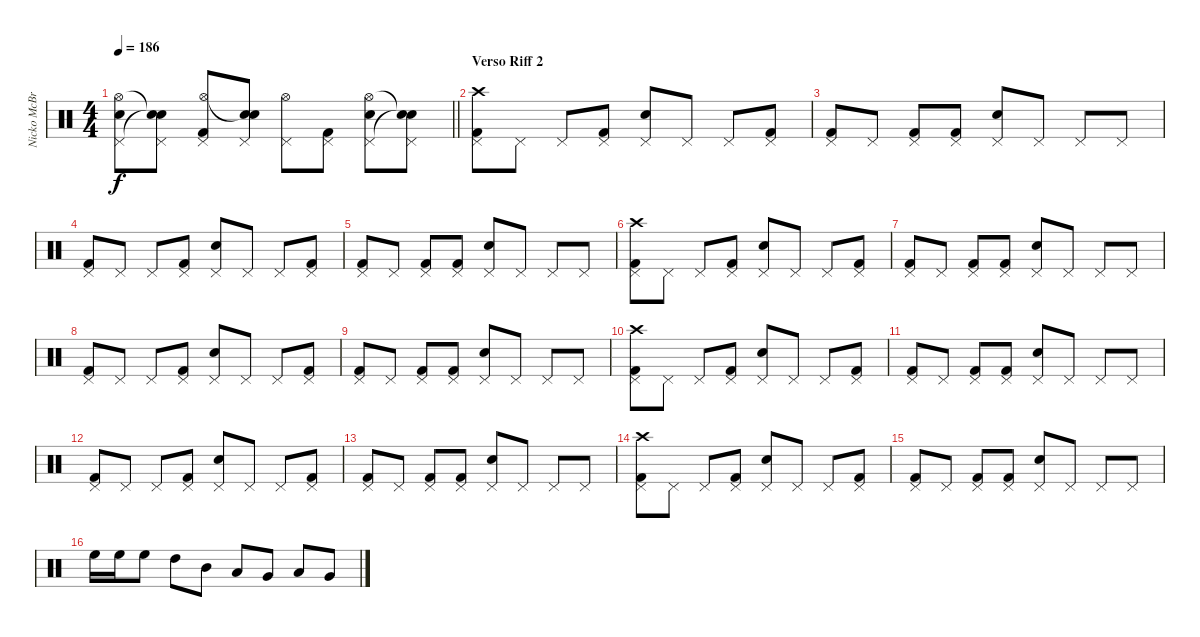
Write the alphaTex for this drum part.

\track ("Nicko McBrain" "Nicko McBr") {instrument percussion}
\staff {score}
\articulation defaults
\ts (4 4)
\tempo 186
\clef neutral
\barLineRight lightlight
\ks c
("Snare (hit) 2" "Pedal Hi-Hat (hit)" "Hi-Hat (open)").8{dy f} ("Pedal Hi-Hat (hit)" "Snare (hit)"{t} "Snare (hit)"{t}).8 ("Kick (hit) 2" "Pedal Hi-Hat (hit)" "Hi-Hat (open)").8 ("Snare (hit) 2" "Pedal Hi-Hat (hit)" "Snare (hit)"{t}).8 ("Pedal Hi-Hat (hit)" "Hi-Hat (open)").8 ("Kick (hit) 2" "Pedal Hi-Hat (hit)").8 ("Snare (hit) 2" "Pedal Hi-Hat (hit)" "Hi-Hat (open)").8 ("Pedal Hi-Hat (hit)" "Snare (hit)"{t} "Snare (hit)"{t}).8 |
\section ("" "Verso Riff 2")
("Kick (hit) 2" "Pedal Hi-Hat (hit)" "Crash high (hit)").8 "Pedal Hi-Hat (hit)".8 "Pedal Hi-Hat (hit)".8 ("Kick (hit) 2" "Pedal Hi-Hat (hit)").8 ("Snare (hit) 2" "Pedal Hi-Hat (hit)").8 "Pedal Hi-Hat (hit)".8 "Pedal Hi-Hat (hit)".8 ("Kick (hit) 2" "Pedal Hi-Hat (hit)").8 |
("Kick (hit) 2" "Pedal Hi-Hat (hit)").8 "Pedal Hi-Hat (hit)".8 ("Kick (hit) 2" "Pedal Hi-Hat (hit)").8 ("Kick (hit) 2" "Pedal Hi-Hat (hit)").8 ("Snare (hit) 2" "Pedal Hi-Hat (hit)").8 "Pedal Hi-Hat (hit)".8 "Pedal Hi-Hat (hit)".8 "Pedal Hi-Hat (hit)".8 |
("Kick (hit) 2" "Pedal Hi-Hat (hit)").8 "Pedal Hi-Hat (hit)".8 "Pedal Hi-Hat (hit)".8 ("Kick (hit) 2" "Pedal Hi-Hat (hit)").8 ("Snare (hit) 2" "Pedal Hi-Hat (hit)").8 "Pedal Hi-Hat (hit)".8 "Pedal Hi-Hat (hit)".8 ("Kick (hit) 2" "Pedal Hi-Hat (hit)").8 |
("Kick (hit) 2" "Pedal Hi-Hat (hit)").8 "Pedal Hi-Hat (hit)".8 ("Kick (hit) 2" "Pedal Hi-Hat (hit)").8 ("Kick (hit) 2" "Pedal Hi-Hat (hit)").8 ("Snare (hit) 2" "Pedal Hi-Hat (hit)").8 "Pedal Hi-Hat (hit)".8 "Pedal Hi-Hat (hit)".8 "Pedal Hi-Hat (hit)".8 |
("Kick (hit) 2" "Pedal Hi-Hat (hit)" "Crash high (hit)").8 "Pedal Hi-Hat (hit)".8 "Pedal Hi-Hat (hit)".8 ("Kick (hit) 2" "Pedal Hi-Hat (hit)").8 ("Snare (hit) 2" "Pedal Hi-Hat (hit)").8 "Pedal Hi-Hat (hit)".8 "Pedal Hi-Hat (hit)".8 ("Kick (hit) 2" "Pedal Hi-Hat (hit)").8 |
("Kick (hit) 2" "Pedal Hi-Hat (hit)").8 "Pedal Hi-Hat (hit)".8 ("Kick (hit) 2" "Pedal Hi-Hat (hit)").8 ("Kick (hit) 2" "Pedal Hi-Hat (hit)").8 ("Snare (hit) 2" "Pedal Hi-Hat (hit)").8 "Pedal Hi-Hat (hit)".8 "Pedal Hi-Hat (hit)".8 "Pedal Hi-Hat (hit)".8 |
("Kick (hit) 2" "Pedal Hi-Hat (hit)").8 "Pedal Hi-Hat (hit)".8 "Pedal Hi-Hat (hit)".8 ("Kick (hit) 2" "Pedal Hi-Hat (hit)").8 ("Snare (hit) 2" "Pedal Hi-Hat (hit)").8 "Pedal Hi-Hat (hit)".8 "Pedal Hi-Hat (hit)".8 ("Kick (hit) 2" "Pedal Hi-Hat (hit)").8 |
("Kick (hit) 2" "Pedal Hi-Hat (hit)").8 "Pedal Hi-Hat (hit)".8 ("Kick (hit) 2" "Pedal Hi-Hat (hit)").8 ("Kick (hit) 2" "Pedal Hi-Hat (hit)").8 ("Snare (hit) 2" "Pedal Hi-Hat (hit)").8 "Pedal Hi-Hat (hit)".8 "Pedal Hi-Hat (hit)".8 "Pedal Hi-Hat (hit)".8 |
("Kick (hit) 2" "Pedal Hi-Hat (hit)" "Crash high (hit)").8 "Pedal Hi-Hat (hit)".8 "Pedal Hi-Hat (hit)".8 ("Kick (hit) 2" "Pedal Hi-Hat (hit)").8 ("Snare (hit) 2" "Pedal Hi-Hat (hit)").8 "Pedal Hi-Hat (hit)".8 "Pedal Hi-Hat (hit)".8 ("Kick (hit) 2" "Pedal Hi-Hat (hit)").8 |
("Kick (hit) 2" "Pedal Hi-Hat (hit)").8 "Pedal Hi-Hat (hit)".8 ("Kick (hit) 2" "Pedal Hi-Hat (hit)").8 ("Kick (hit) 2" "Pedal Hi-Hat (hit)").8 ("Snare (hit) 2" "Pedal Hi-Hat (hit)").8 "Pedal Hi-Hat (hit)".8 "Pedal Hi-Hat (hit)".8 "Pedal Hi-Hat (hit)".8 |
("Kick (hit) 2" "Pedal Hi-Hat (hit)").8 "Pedal Hi-Hat (hit)".8 "Pedal Hi-Hat (hit)".8 ("Kick (hit) 2" "Pedal Hi-Hat (hit)").8 ("Snare (hit) 2" "Pedal Hi-Hat (hit)").8 "Pedal Hi-Hat (hit)".8 "Pedal Hi-Hat (hit)".8 ("Kick (hit) 2" "Pedal Hi-Hat (hit)").8 |
("Kick (hit) 2" "Pedal Hi-Hat (hit)").8 "Pedal Hi-Hat (hit)".8 ("Kick (hit) 2" "Pedal Hi-Hat (hit)").8 ("Kick (hit) 2" "Pedal Hi-Hat (hit)").8 ("Snare (hit) 2" "Pedal Hi-Hat (hit)").8 "Pedal Hi-Hat (hit)".8 "Pedal Hi-Hat (hit)".8 "Pedal Hi-Hat (hit)".8 |
("Kick (hit) 2" "Pedal Hi-Hat (hit)" "Crash high (hit)").8 "Pedal Hi-Hat (hit)".8 "Pedal Hi-Hat (hit)".8 ("Kick (hit) 2" "Pedal Hi-Hat (hit)").8 ("Snare (hit) 2" "Pedal Hi-Hat (hit)").8 "Pedal Hi-Hat (hit)".8 "Pedal Hi-Hat (hit)".8 ("Kick (hit) 2" "Pedal Hi-Hat (hit)").8 |
("Kick (hit) 2" "Pedal Hi-Hat (hit)").8 "Pedal Hi-Hat (hit)".8 ("Kick (hit) 2" "Pedal Hi-Hat (hit)").8 ("Kick (hit) 2" "Pedal Hi-Hat (hit)").8 ("Snare (hit) 2" "Pedal Hi-Hat (hit)").8 "Pedal Hi-Hat (hit)".8 "Pedal Hi-Hat (hit)".8 "Pedal Hi-Hat (hit)".8 |
"High Floor Tom (hit)".16 "High Floor Tom (hit)".16 "High Floor Tom (hit)".8 "High Tom (hit)".8 "Mid Tom (hit)".8 "Low Tom (hit)".8 "Very Low Tom (hit)".8 "Low Floor Tom (hit)".8 "Very Low Tom (hit)".8
